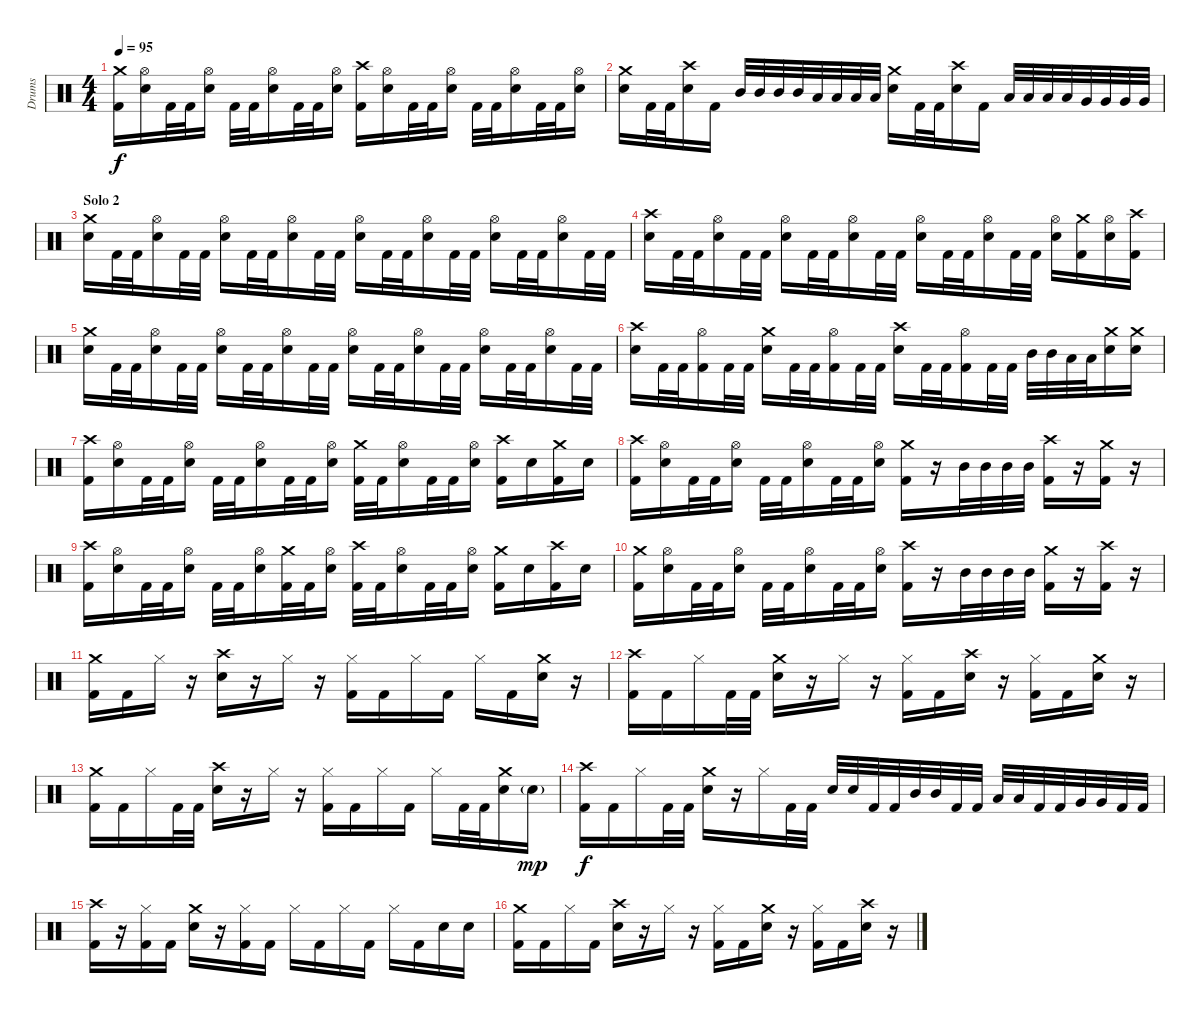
\track ("Drums" "Drums") {instrument percussion}
\staff {score}
\articulation defaults
\ts (4 4)
\tempo 95
\clef neutral
\ks c
("Crash medium (hit)" "Kick (hit) 2").16{dy f} ("Hi-Hat (open)" "Snare (hit) 2").16 "Kick (hit) 2".32 "Kick (hit) 2".32 ("Hi-Hat (open)" "Snare (hit) 2").16 "Kick (hit) 2".32 "Kick (hit) 2".32 ("Hi-Hat (open)" "Snare (hit) 2").16 "Kick (hit) 2".32 "Kick (hit) 2".32 ("Hi-Hat (open)" "Snare (hit) 2").16 ("Crash high (hit)" "Kick (hit) 2").16 ("Hi-Hat (open)" "Snare (hit) 2").16 "Kick (hit) 2".32 "Kick (hit) 2".32 ("Hi-Hat (open)" "Snare (hit) 2").16 "Kick (hit) 2".32 "Kick (hit) 2".32 ("Hi-Hat (open)" "Snare (hit) 2").16 "Kick (hit) 2".32 "Kick (hit) 2".32 ("Hi-Hat (open)" "Snare (hit) 2").16 |
("Crash medium (hit)" "Snare (hit) 2").16 "Kick (hit) 2".32 "Kick (hit) 2".32 ("Crash high (hit)" "Snare (hit) 2").16 "Kick (hit) 2".16 "Mid Tom (hit)".32 "Mid Tom (hit)".32 "Mid Tom (hit)".32 "Mid Tom (hit)".32 "Low Tom (hit)".32 "Low Tom (hit)".32 "Low Tom (hit)".32 "Low Tom (hit)".32 ("Crash medium (hit)" "Snare (hit) 2").16 "Kick (hit) 2".32 "Kick (hit) 2".32 ("Crash high (hit)" "Snare (hit) 2").16 "Kick (hit) 2".16 "Low Tom (hit)".32 "Low Tom (hit)".32 "Low Tom (hit)".32 "Low Tom (hit)".32 "Very Low Tom (hit)".32 "Very Low Tom (hit)".32 "Very Low Tom (hit)".32 "Very Low Tom (hit)".32 |
\section ("" "Solo 2")
("Crash medium (hit)" "Snare (hit) 2").16 "Kick (hit) 2".32 "Kick (hit) 2".32 ("Hi-Hat (open)" "Snare (hit) 2").16 "Kick (hit) 2".32 "Kick (hit) 2".32 ("Hi-Hat (open)" "Snare (hit) 2").16 "Kick (hit) 2".32 "Kick (hit) 2".32 ("Hi-Hat (open)" "Snare (hit) 2").16 "Kick (hit) 2".32 "Kick (hit) 2".32 ("Hi-Hat (open)" "Snare (hit) 2").16 "Kick (hit) 2".32 "Kick (hit) 2".32 ("Hi-Hat (open)" "Snare (hit) 2").16 "Kick (hit) 2".32 "Kick (hit) 2".32 ("Hi-Hat (open)" "Snare (hit) 2").16 "Kick (hit) 2".32 "Kick (hit) 2".32 ("Hi-Hat (open)" "Snare (hit) 2").16 "Kick (hit) 2".32 "Kick (hit) 2".32 |
("Crash high (hit)" "Snare (hit) 2").16 "Kick (hit) 2".32 "Kick (hit) 2".32 ("Hi-Hat (open)" "Snare (hit) 2").16 "Kick (hit) 2".32 "Kick (hit) 2".32 ("Hi-Hat (open)" "Snare (hit) 2").16 "Kick (hit) 2".32 "Kick (hit) 2".32 ("Hi-Hat (open)" "Snare (hit) 2").16 "Kick (hit) 2".32 "Kick (hit) 2".32 ("Hi-Hat (open)" "Snare (hit) 2").16 "Kick (hit) 2".32 "Kick (hit) 2".32 ("Hi-Hat (open)" "Snare (hit) 2").16 "Kick (hit) 2".32 "Kick (hit) 2".32 ("Hi-Hat (open)" "Snare (hit) 2").16 ("Crash medium (hit)" "Kick (hit) 2").16 ("Hi-Hat (open)" "Snare (hit) 2").16 ("Crash high (hit)" "Kick (hit) 2").16 |
("Crash medium (hit)" "Snare (hit) 2").16 "Kick (hit) 2".32 "Kick (hit) 2".32 ("Hi-Hat (open)" "Snare (hit) 2").16 "Kick (hit) 2".32 "Kick (hit) 2".32 ("Hi-Hat (open)" "Snare (hit) 2").16 "Kick (hit) 2".32 "Kick (hit) 2".32 ("Hi-Hat (open)" "Snare (hit) 2").16 "Kick (hit) 2".32 "Kick (hit) 2".32 ("Hi-Hat (open)" "Snare (hit) 2").16 "Kick (hit) 2".32 "Kick (hit) 2".32 ("Hi-Hat (open)" "Snare (hit) 2").16 "Kick (hit) 2".32 "Kick (hit) 2".32 ("Hi-Hat (open)" "Snare (hit) 2").16 "Kick (hit) 2".32 "Kick (hit) 2".32 ("Hi-Hat (open)" "Snare (hit) 2").16 "Kick (hit) 2".32 "Kick (hit) 2".32 |
("Crash high (hit)" "Snare (hit) 2").16 "Kick (hit) 2".32 "Kick (hit) 2".32 ("Hi-Hat (open)" "Kick (hit) 2").16 "Kick (hit) 2".32 "Kick (hit) 2".32 ("Crash medium (hit)" "Snare (hit) 2").16 "Kick (hit) 2".32 "Kick (hit) 2".32 ("Hi-Hat (open)" "Kick (hit) 2").16 "Kick (hit) 2".32 "Kick (hit) 2".32 ("Crash high (hit)" "Snare (hit) 2").16 "Kick (hit) 2".32 "Kick (hit) 2".32 ("Hi-Hat (open)" "Kick (hit) 2").16 "Kick (hit) 2".32 "Kick (hit) 2".32 "Mid Tom (hit)".32 "Mid Tom (hit)".32 "Low Tom (hit)".32 "Low Tom (hit)".32 ("Crash medium (hit)" "Snare (hit) 2").16 ("Crash medium (hit)" "Snare (hit) 2").16 |
("Crash high (hit)" "Kick (hit) 2").16 ("Hi-Hat (open)" "Snare (hit) 2").16 "Kick (hit) 2".32 "Kick (hit) 2".32 ("Hi-Hat (open)" "Snare (hit) 2").16 "Kick (hit) 2".32 "Kick (hit) 2".32 ("Hi-Hat (open)" "Snare (hit) 2").16 "Kick (hit) 2".32 "Kick (hit) 2".32 ("Hi-Hat (open)" "Snare (hit) 2").16 ("Crash medium (hit)" "Kick (hit) 2").32 "Kick (hit) 2".32 ("Hi-Hat (open)" "Snare (hit) 2").16 "Kick (hit) 2".32 "Kick (hit) 2".32 ("Hi-Hat (open)" "Snare (hit) 2").16 ("Crash high (hit)" "Kick (hit) 2").16 "Snare (hit) 2".16 ("Crash medium (hit)" "Kick (hit) 2").16 "Snare (hit) 2".16 |
("Crash high (hit)" "Kick (hit) 2").16 ("Hi-Hat (open)" "Snare (hit) 2").16 "Kick (hit) 2".32 "Kick (hit) 2".32 ("Hi-Hat (open)" "Snare (hit) 2").16 "Kick (hit) 2".32 "Kick (hit) 2".32 ("Hi-Hat (open)" "Snare (hit) 2").16 "Kick (hit) 2".32 "Kick (hit) 2".32 ("Hi-Hat (open)" "Snare (hit) 2").16 ("Crash medium (hit)" "Kick (hit) 2").16 r.16 "Mid Tom (hit)".32 "Mid Tom (hit)".32 "Mid Tom (hit)".32 "Mid Tom (hit)".32 ("Crash high (hit)" "Kick (hit) 2").16 r.16 ("Crash medium (hit)" "Kick (hit) 2").16 r.16 |
("Crash high (hit)" "Kick (hit) 2").16 ("Hi-Hat (open)" "Snare (hit) 2").16 "Kick (hit) 2".32 "Kick (hit) 2".32 ("Hi-Hat (open)" "Snare (hit) 2").16 "Kick (hit) 2".32 "Kick (hit) 2".32 ("Hi-Hat (open)" "Snare (hit) 2").16 ("Crash medium (hit)" "Kick (hit) 2").32 "Kick (hit) 2".32 ("Hi-Hat (open)" "Snare (hit) 2").16 ("Crash high (hit)" "Kick (hit) 2").32 "Kick (hit) 2".32 ("Hi-Hat (open)" "Snare (hit) 2").16 "Kick (hit) 2".32 "Kick (hit) 2".32 ("Hi-Hat (open)" "Snare (hit) 2").16 ("Crash medium (hit)" "Kick (hit) 2").16 "Snare (hit) 2".16 ("Crash high (hit)" "Kick (hit) 2").16 "Snare (hit) 2".16 |
("Crash medium (hit)" "Kick (hit) 2").16 ("Hi-Hat (open)" "Snare (hit) 2").16 "Kick (hit) 2".32 "Kick (hit) 2".32 ("Hi-Hat (open)" "Snare (hit) 2").16 "Kick (hit) 2".32 "Kick (hit) 2".32 ("Hi-Hat (open)" "Snare (hit) 2").16 "Kick (hit) 2".32 "Kick (hit) 2".32 ("Hi-Hat (open)" "Snare (hit) 2").16 ("Crash high (hit)" "Kick (hit) 2").16 r.16 "Mid Tom (hit)".32 "Mid Tom (hit)".32 "Mid Tom (hit)".32 "Mid Tom (hit)".32 ("Crash medium (hit)" "Kick (hit) 2").16 r.16 ("Crash high (hit)" "Kick (hit) 2").16 r.16 |
\section ("" "")
("Crash medium (hit)" "Kick (hit) 2").16 "Kick (hit) 2".16 "Hi-Hat (closed)".16 r.16 ("Crash high (hit)" "Snare (hit) 2").16 r.16 "Hi-Hat (closed)".16 r.16 ("Hi-Hat (closed)" "Kick (hit) 2").16 "Kick (hit) 2".16 "Hi-Hat (closed)".16 "Kick (hit) 2".16 "Hi-Hat (closed)".16 "Kick (hit) 2".16 ("Crash medium (hit)" "Snare (hit) 2").16 r.16 |
("Crash high (hit)" "Kick (hit) 2").16 "Kick (hit) 2".16 "Hi-Hat (closed)".16 "Kick (hit) 2".32 "Kick (hit) 2".32 ("Crash medium (hit)" "Snare (hit) 2").16 r.16 "Hi-Hat (closed)".16 r.16 ("Hi-Hat (closed)" "Kick (hit) 2").16 "Kick (hit) 2".16 ("Crash high (hit)" "Snare (hit) 2").16 r.16 ("Hi-Hat (closed)" "Kick (hit) 2").16 "Kick (hit) 2".16 ("Crash medium (hit)" "Snare (hit) 2").16 r.16 |
("Crash medium (hit)" "Kick (hit) 2").16 "Kick (hit) 2".16 "Hi-Hat (closed)".16 "Kick (hit) 2".32 "Kick (hit) 2".32 ("Crash high (hit)" "Snare (hit) 2").16 r.16 "Hi-Hat (closed)".16 r.16 ("Hi-Hat (closed)" "Kick (hit) 2").16 "Kick (hit) 2".16 "Hi-Hat (closed)".16 "Kick (hit) 2".16 "Hi-Hat (closed)".16 "Kick (hit) 2".32 "Kick (hit) 2".32 ("Crash medium (hit)" "Snare (hit) 2").16 "Snare (hit) 2"{g}.16{dy mp} |
("Crash high (hit)" "Kick (hit) 2").16{dy f} "Kick (hit) 2".16 "Hi-Hat (closed)".16 "Kick (hit) 2".32 "Kick (hit) 2".32 ("Crash medium (hit)" "Snare (hit) 2").16 r.16 "Hi-Hat (closed)".16 "Kick (hit) 2".32 "Kick (hit) 2".32 "Snare (hit) 2".32 "Snare (hit) 2".32 "Kick (hit) 2".32 "Kick (hit) 2".32 "Mid Tom (hit)".32 "Mid Tom (hit)".32 "Kick (hit) 2".32 "Kick (hit) 2".32 "Low Tom (hit)".32 "Low Tom (hit)".32 "Kick (hit) 2".32 "Kick (hit) 2".32 "Very Low Tom (hit)".32 "Very Low Tom (hit)".32 "Kick (hit) 2".32 "Kick (hit) 2".32 |
("Crash high (hit)" "Kick (hit) 2").16 r.16 ("Hi-Hat (closed)" "Kick (hit) 2").16 "Kick (hit) 2".16 ("Crash medium (hit)" "Snare (hit) 2").16 r.16 ("Hi-Hat (closed)" "Kick (hit) 2").16 "Kick (hit) 2".16 "Hi-Hat (closed)".16 "Kick (hit) 2".16 "Hi-Hat (closed)".16 "Kick (hit) 2".16 "Hi-Hat (closed)".16 "Kick (hit) 2".16 "Snare (hit) 2".16 "Snare (hit) 2".16 |
("Crash medium (hit)" "Kick (hit) 2").16 "Kick (hit) 2".16 "Hi-Hat (closed)".16 "Kick (hit) 2".16 ("Crash high (hit)" "Snare (hit) 2").16 r.16 "Hi-Hat (closed)".16 r.16 ("Hi-Hat (closed)" "Kick (hit) 2").16 "Kick (hit) 2".16 ("Crash medium (hit)" "Snare (hit) 2").16 r.16 ("Hi-Hat (closed)" "Kick (hit) 2").16 "Kick (hit) 2".16 ("Crash high (hit)" "Snare (hit) 2").16 r.16
